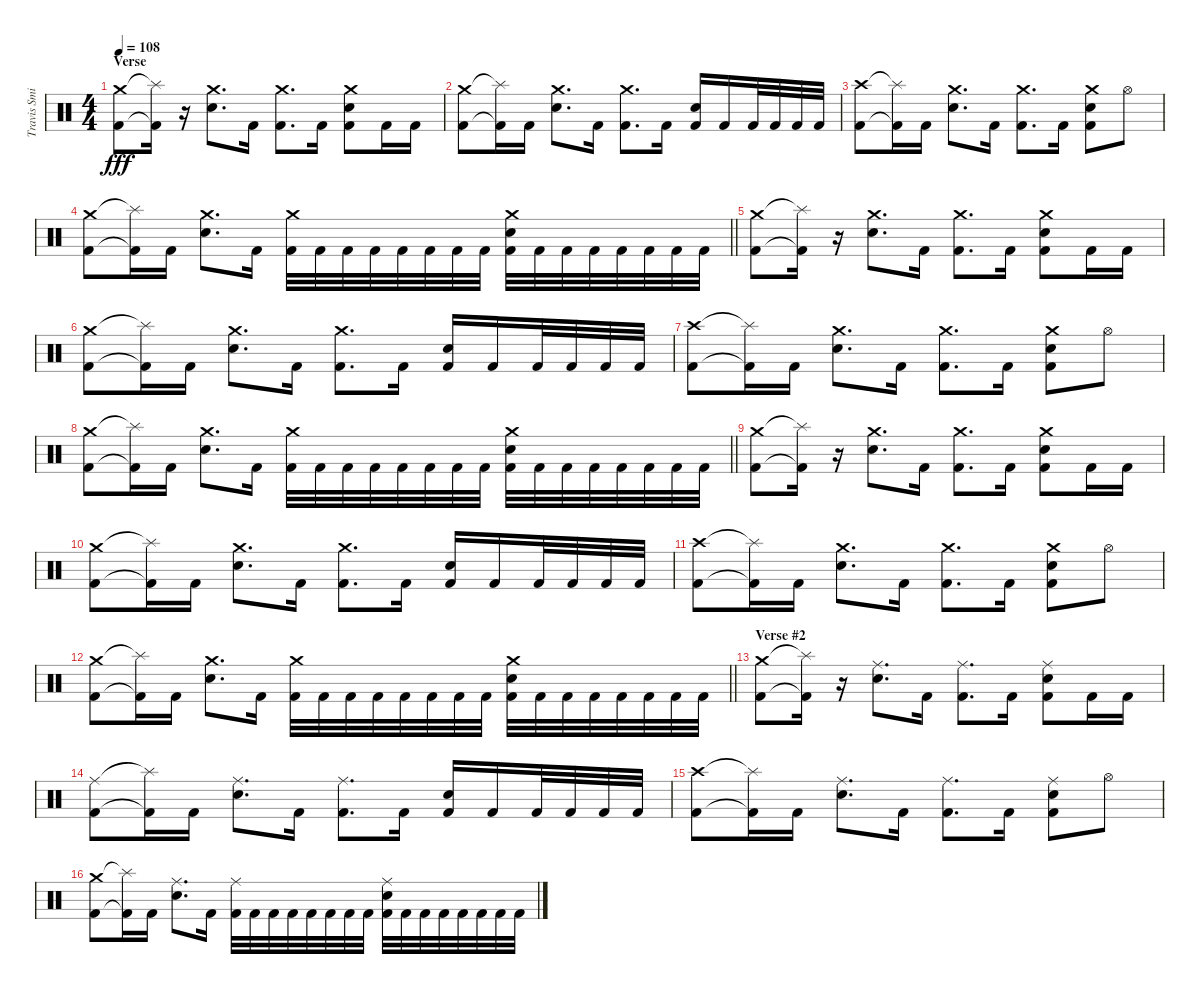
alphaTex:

\track ("Travis Smith" "Travis Smi") {instrument percussion}
\staff {score}
\articulation defaults
\ts (4 4)
\section ("" "Verse")
\tempo 108
\clef neutral
\ks c
("Crash medium (hit)" "Kick (hit) 2").8{dy fff} ("Splash (hit)"{t} "Kick (hit) 2"{t}).16 r.16 ("Crash medium (hit)" "Snare (hit) 2").8{d} "Kick (hit) 2".16 ("Crash medium (hit)" "Kick (hit) 2").8{d} "Kick (hit) 2".16 ("Crash medium (hit)" "Snare (hit) 2" "Kick (hit) 2").8 "Kick (hit) 2".16 "Kick (hit) 2".16 |
("Crash medium (hit)" "Kick (hit) 2").8 ("Splash (hit)"{t} "Kick (hit) 2"{t}).16 "Kick (hit) 2".16 ("Crash medium (hit)" "Snare (hit) 2").8{d} "Kick (hit) 2".16 ("Crash medium (hit)" "Kick (hit) 2").8{d} "Kick (hit) 2".16 ("Snare (hit) 2" "Kick (hit) 2").16 "Kick (hit) 2".16 "Kick (hit) 2".32 "Kick (hit) 2".32 "Kick (hit) 2".32 "Kick (hit) 2".32 |
("Crash high (hit)" "Kick (hit) 2").8 ("Splash (hit)"{t} "Kick (hit) 2"{t}).16 "Kick (hit) 2".16 ("Crash medium (hit)" "Snare (hit) 2").8{d} "Kick (hit) 2".16 ("Crash medium (hit)" "Kick (hit) 2").8{d} "Kick (hit) 2".16 ("Crash medium (hit)" "Snare (hit) 2" "Kick (hit) 2").8 "Hi-Hat (open)".8 |
\barLineRight lightlight
("Crash medium (hit)" "Kick (hit) 2").8 ("Splash (hit)"{t} "Kick (hit) 2"{t}).16 "Kick (hit) 2".16 ("Crash medium (hit)" "Snare (hit) 2").8{d} "Kick (hit) 2".16 ("Crash medium (hit)" "Kick (hit) 2").32 "Kick (hit) 2".32 "Kick (hit) 2".32 "Kick (hit) 2".32 "Kick (hit) 2".32 "Kick (hit) 2".32 "Kick (hit) 2".32 "Kick (hit) 2".32 ("Crash medium (hit)" "Snare (hit) 2" "Kick (hit) 2").32 "Kick (hit) 2".32 "Kick (hit) 2".32 "Kick (hit) 2".32 "Kick (hit) 2".32 "Kick (hit) 2".32 "Kick (hit) 2".32 "Kick (hit) 2".32 |
("Crash medium (hit)" "Kick (hit) 2").8 ("Splash (hit)"{t} "Kick (hit) 2"{t}).16 r.16 ("Crash medium (hit)" "Snare (hit) 2").8{d} "Kick (hit) 2".16 ("Crash medium (hit)" "Kick (hit) 2").8{d} "Kick (hit) 2".16 ("Crash medium (hit)" "Snare (hit) 2" "Kick (hit) 2").8 "Kick (hit) 2".16 "Kick (hit) 2".16 |
("Crash medium (hit)" "Kick (hit) 2").8 ("Splash (hit)"{t} "Kick (hit) 2"{t}).16 "Kick (hit) 2".16 ("Crash medium (hit)" "Snare (hit) 2").8{d} "Kick (hit) 2".16 ("Crash medium (hit)" "Kick (hit) 2").8{d} "Kick (hit) 2".16 ("Snare (hit) 2" "Kick (hit) 2").16 "Kick (hit) 2".16 "Kick (hit) 2".32 "Kick (hit) 2".32 "Kick (hit) 2".32 "Kick (hit) 2".32 |
("Crash high (hit)" "Kick (hit) 2").8 ("Splash (hit)"{t} "Kick (hit) 2"{t}).16 "Kick (hit) 2".16 ("Crash medium (hit)" "Snare (hit) 2").8{d} "Kick (hit) 2".16 ("Crash medium (hit)" "Kick (hit) 2").8{d} "Kick (hit) 2".16 ("Crash medium (hit)" "Snare (hit) 2" "Kick (hit) 2").8 "Hi-Hat (open)".8 |
\barLineRight lightlight
("Crash medium (hit)" "Kick (hit) 2").8 ("Splash (hit)"{t} "Kick (hit) 2"{t}).16 "Kick (hit) 2".16 ("Crash medium (hit)" "Snare (hit) 2").8{d} "Kick (hit) 2".16 ("Crash medium (hit)" "Kick (hit) 2").32 "Kick (hit) 2".32 "Kick (hit) 2".32 "Kick (hit) 2".32 "Kick (hit) 2".32 "Kick (hit) 2".32 "Kick (hit) 2".32 "Kick (hit) 2".32 ("Crash medium (hit)" "Snare (hit) 2" "Kick (hit) 2").32 "Kick (hit) 2".32 "Kick (hit) 2".32 "Kick (hit) 2".32 "Kick (hit) 2".32 "Kick (hit) 2".32 "Kick (hit) 2".32 "Kick (hit) 2".32 |
("Crash medium (hit)" "Kick (hit) 2").8 ("Splash (hit)"{t} "Kick (hit) 2"{t}).16 r.16 ("Crash medium (hit)" "Snare (hit) 2").8{d} "Kick (hit) 2".16 ("Crash medium (hit)" "Kick (hit) 2").8{d} "Kick (hit) 2".16 ("Crash medium (hit)" "Snare (hit) 2" "Kick (hit) 2").8 "Kick (hit) 2".16 "Kick (hit) 2".16 |
("Crash medium (hit)" "Kick (hit) 2").8 ("Splash (hit)"{t} "Kick (hit) 2"{t}).16 "Kick (hit) 2".16 ("Crash medium (hit)" "Snare (hit) 2").8{d} "Kick (hit) 2".16 ("Crash medium (hit)" "Kick (hit) 2").8{d} "Kick (hit) 2".16 ("Snare (hit) 2" "Kick (hit) 2").16 "Kick (hit) 2".16 "Kick (hit) 2".32 "Kick (hit) 2".32 "Kick (hit) 2".32 "Kick (hit) 2".32 |
("Crash high (hit)" "Kick (hit) 2").8 ("Splash (hit)"{t} "Kick (hit) 2"{t}).16 "Kick (hit) 2".16 ("Crash medium (hit)" "Snare (hit) 2").8{d} "Kick (hit) 2".16 ("Crash medium (hit)" "Kick (hit) 2").8{d} "Kick (hit) 2".16 ("Crash medium (hit)" "Snare (hit) 2" "Kick (hit) 2").8 "Hi-Hat (open)".8 |
\barLineRight lightlight
("Crash medium (hit)" "Kick (hit) 2").8 ("Splash (hit)"{t} "Kick (hit) 2"{t}).16 "Kick (hit) 2".16 ("Crash medium (hit)" "Snare (hit) 2").8{d} "Kick (hit) 2".16 ("Crash medium (hit)" "Kick (hit) 2").32 "Kick (hit) 2".32 "Kick (hit) 2".32 "Kick (hit) 2".32 "Kick (hit) 2".32 "Kick (hit) 2".32 "Kick (hit) 2".32 "Kick (hit) 2".32 ("Crash medium (hit)" "Snare (hit) 2" "Kick (hit) 2").32 "Kick (hit) 2".32 "Kick (hit) 2".32 "Kick (hit) 2".32 "Kick (hit) 2".32 "Kick (hit) 2".32 "Kick (hit) 2".32 "Kick (hit) 2".32 |
\section ("" "Verse #2")
("Crash medium (hit)" "Kick (hit) 2").8 ("Splash (hit)"{t} "Kick (hit) 2"{t}).16 r.16 ("Ride (middle)" "Snare (hit) 2").8{d} "Kick (hit) 2".16 ("Ride (middle)" "Kick (hit) 2").8{d} "Kick (hit) 2".16 ("Ride (middle)" "Snare (hit) 2" "Kick (hit) 2").8 "Kick (hit) 2".16 "Kick (hit) 2".16 |
("Ride (middle)" "Kick (hit) 2").8 ("Splash (hit)"{t} "Kick (hit) 2"{t}).16 "Kick (hit) 2".16 ("Ride (middle)" "Snare (hit) 2").8{d} "Kick (hit) 2".16 ("Ride (middle)" "Kick (hit) 2").8{d} "Kick (hit) 2".16 ("Snare (hit) 2" "Kick (hit) 2").16 "Kick (hit) 2".16 "Kick (hit) 2".32 "Kick (hit) 2".32 "Kick (hit) 2".32 "Kick (hit) 2".32 |
("Crash high (hit)" "Kick (hit) 2").8 ("Splash (hit)"{t} "Kick (hit) 2"{t}).16 "Kick (hit) 2".16 ("Ride (middle)" "Snare (hit) 2").8{d} "Kick (hit) 2".16 ("Ride (middle)" "Kick (hit) 2").8{d} "Kick (hit) 2".16 ("Ride (middle)" "Snare (hit) 2" "Kick (hit) 2").8 "Hi-Hat (open)".8 |
("Crash medium (hit)" "Kick (hit) 2").8 ("Splash (hit)"{t} "Kick (hit) 2"{t}).16 "Kick (hit) 2".16 ("Ride (middle)" "Snare (hit) 2").8{d} "Kick (hit) 2".16 ("Ride (middle)" "Kick (hit) 2").32 "Kick (hit) 2".32 "Kick (hit) 2".32 "Kick (hit) 2".32 "Kick (hit) 2".32 "Kick (hit) 2".32 "Kick (hit) 2".32 "Kick (hit) 2".32 ("Ride (middle)" "Snare (hit) 2" "Kick (hit) 2").32 "Kick (hit) 2".32 "Kick (hit) 2".32 "Kick (hit) 2".32 "Kick (hit) 2".32 "Kick (hit) 2".32 "Kick (hit) 2".32 "Kick (hit) 2".32
